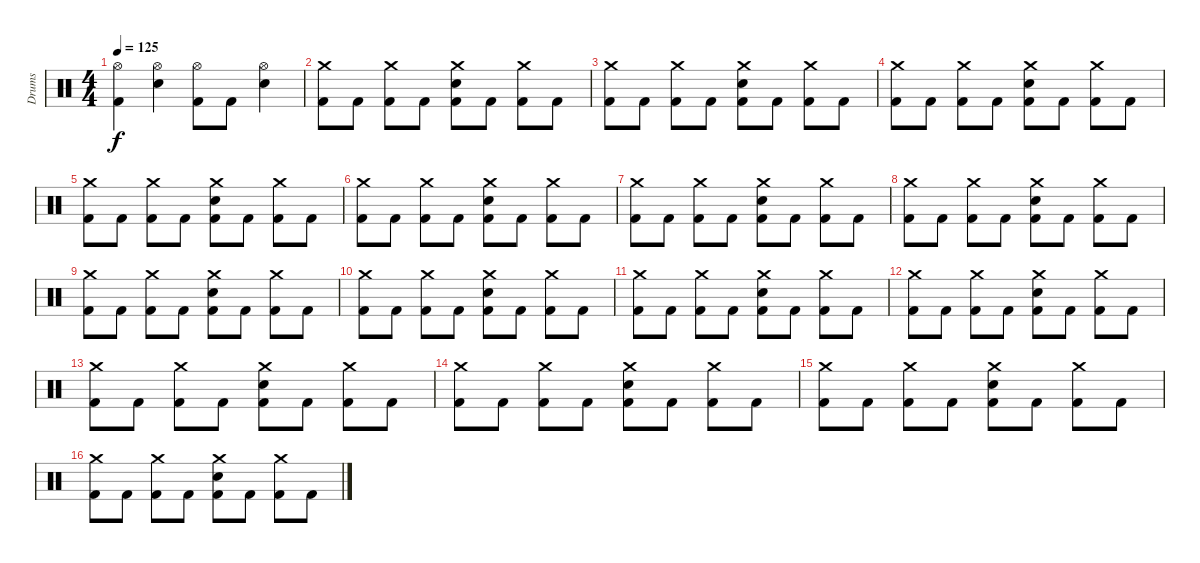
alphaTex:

\track ("Drums" "Drums") {instrument percussion}
\staff {score}
\articulation defaults
\ts (4 4)
\tempo 125
\clef neutral
\ks c
("Hi-Hat (open)" "Kick (hit) 2").4{dy f} ("Hi-Hat (open)" "Electric Snare (hit)").4 ("Hi-Hat (open)" "Kick (hit) 2").8 "Kick (hit) 2".8 ("Hi-Hat (open)" "Electric Snare (hit)").4 |
("Crash medium (hit)" "Kick (hit) 2").8 "Kick (hit) 2".8 ("Crash medium (hit)" "Kick (hit) 2").8 "Kick (hit) 2".8 ("Crash medium (hit)" "Electric Snare (hit)" "Kick (hit) 2").8 "Kick (hit) 2".8 ("Crash medium (hit)" "Kick (hit) 2").8 "Kick (hit) 2".8 |
("Crash medium (hit)" "Kick (hit) 2").8 "Kick (hit) 2".8 ("Crash medium (hit)" "Kick (hit) 2").8 "Kick (hit) 2".8 ("Crash medium (hit)" "Electric Snare (hit)" "Kick (hit) 2").8 "Kick (hit) 2".8 ("Crash medium (hit)" "Kick (hit) 2").8 "Kick (hit) 2".8 |
("Crash medium (hit)" "Kick (hit) 2").8 "Kick (hit) 2".8 ("Crash medium (hit)" "Kick (hit) 2").8 "Kick (hit) 2".8 ("Crash medium (hit)" "Electric Snare (hit)" "Kick (hit) 2").8 "Kick (hit) 2".8 ("Crash medium (hit)" "Kick (hit) 2").8 "Kick (hit) 2".8 |
("Crash medium (hit)" "Kick (hit) 2").8 "Kick (hit) 2".8 ("Crash medium (hit)" "Kick (hit) 2").8 "Kick (hit) 2".8 ("Crash medium (hit)" "Electric Snare (hit)" "Kick (hit) 2").8 "Kick (hit) 2".8 ("Crash medium (hit)" "Kick (hit) 2").8 "Kick (hit) 2".8 |
("Crash medium (hit)" "Kick (hit) 2").8 "Kick (hit) 2".8 ("Crash medium (hit)" "Kick (hit) 2").8 "Kick (hit) 2".8 ("Crash medium (hit)" "Electric Snare (hit)" "Kick (hit) 2").8 "Kick (hit) 2".8 ("Crash medium (hit)" "Kick (hit) 2").8 "Kick (hit) 2".8 |
("Crash medium (hit)" "Kick (hit) 2").8 "Kick (hit) 2".8 ("Crash medium (hit)" "Kick (hit) 2").8 "Kick (hit) 2".8 ("Crash medium (hit)" "Electric Snare (hit)" "Kick (hit) 2").8 "Kick (hit) 2".8 ("Crash medium (hit)" "Kick (hit) 2").8 "Kick (hit) 2".8 |
("Crash medium (hit)" "Kick (hit) 2").8 "Kick (hit) 2".8 ("Crash medium (hit)" "Kick (hit) 2").8 "Kick (hit) 2".8 ("Crash medium (hit)" "Electric Snare (hit)" "Kick (hit) 2").8 "Kick (hit) 2".8 ("Crash medium (hit)" "Kick (hit) 2").8 "Kick (hit) 2".8 |
("Crash medium (hit)" "Kick (hit) 2").8 "Kick (hit) 2".8 ("Crash medium (hit)" "Kick (hit) 2").8 "Kick (hit) 2".8 ("Crash medium (hit)" "Electric Snare (hit)" "Kick (hit) 2").8 "Kick (hit) 2".8 ("Crash medium (hit)" "Kick (hit) 2").8 "Kick (hit) 2".8 |
("Crash medium (hit)" "Kick (hit) 2").8 "Kick (hit) 2".8 ("Crash medium (hit)" "Kick (hit) 2").8 "Kick (hit) 2".8 ("Crash medium (hit)" "Electric Snare (hit)" "Kick (hit) 2").8 "Kick (hit) 2".8 ("Crash medium (hit)" "Kick (hit) 2").8 "Kick (hit) 2".8 |
("Crash medium (hit)" "Kick (hit) 2").8 "Kick (hit) 2".8 ("Crash medium (hit)" "Kick (hit) 2").8 "Kick (hit) 2".8 ("Crash medium (hit)" "Electric Snare (hit)" "Kick (hit) 2").8 "Kick (hit) 2".8 ("Crash medium (hit)" "Kick (hit) 2").8 "Kick (hit) 2".8 |
("Crash medium (hit)" "Kick (hit) 2").8 "Kick (hit) 2".8 ("Crash medium (hit)" "Kick (hit) 2").8 "Kick (hit) 2".8 ("Crash medium (hit)" "Electric Snare (hit)" "Kick (hit) 2").8 "Kick (hit) 2".8 ("Crash medium (hit)" "Kick (hit) 2").8 "Kick (hit) 2".8 |
("Crash medium (hit)" "Kick (hit) 2").8 "Kick (hit) 2".8 ("Crash medium (hit)" "Kick (hit) 2").8 "Kick (hit) 2".8 ("Crash medium (hit)" "Electric Snare (hit)" "Kick (hit) 2").8 "Kick (hit) 2".8 ("Crash medium (hit)" "Kick (hit) 2").8 "Kick (hit) 2".8 |
("Crash medium (hit)" "Kick (hit) 2").8 "Kick (hit) 2".8 ("Crash medium (hit)" "Kick (hit) 2").8 "Kick (hit) 2".8 ("Crash medium (hit)" "Electric Snare (hit)" "Kick (hit) 2").8 "Kick (hit) 2".8 ("Crash medium (hit)" "Kick (hit) 2").8 "Kick (hit) 2".8 |
("Crash medium (hit)" "Kick (hit) 2").8 "Kick (hit) 2".8 ("Crash medium (hit)" "Kick (hit) 2").8 "Kick (hit) 2".8 ("Crash medium (hit)" "Electric Snare (hit)" "Kick (hit) 2").8 "Kick (hit) 2".8 ("Crash medium (hit)" "Kick (hit) 2").8 "Kick (hit) 2".8 |
("Crash medium (hit)" "Kick (hit) 2").8 "Kick (hit) 2".8 ("Crash medium (hit)" "Kick (hit) 2").8 "Kick (hit) 2".8 ("Crash medium (hit)" "Electric Snare (hit)" "Kick (hit) 2").8 "Kick (hit) 2".8 ("Crash medium (hit)" "Kick (hit) 2").8 "Kick (hit) 2".8
